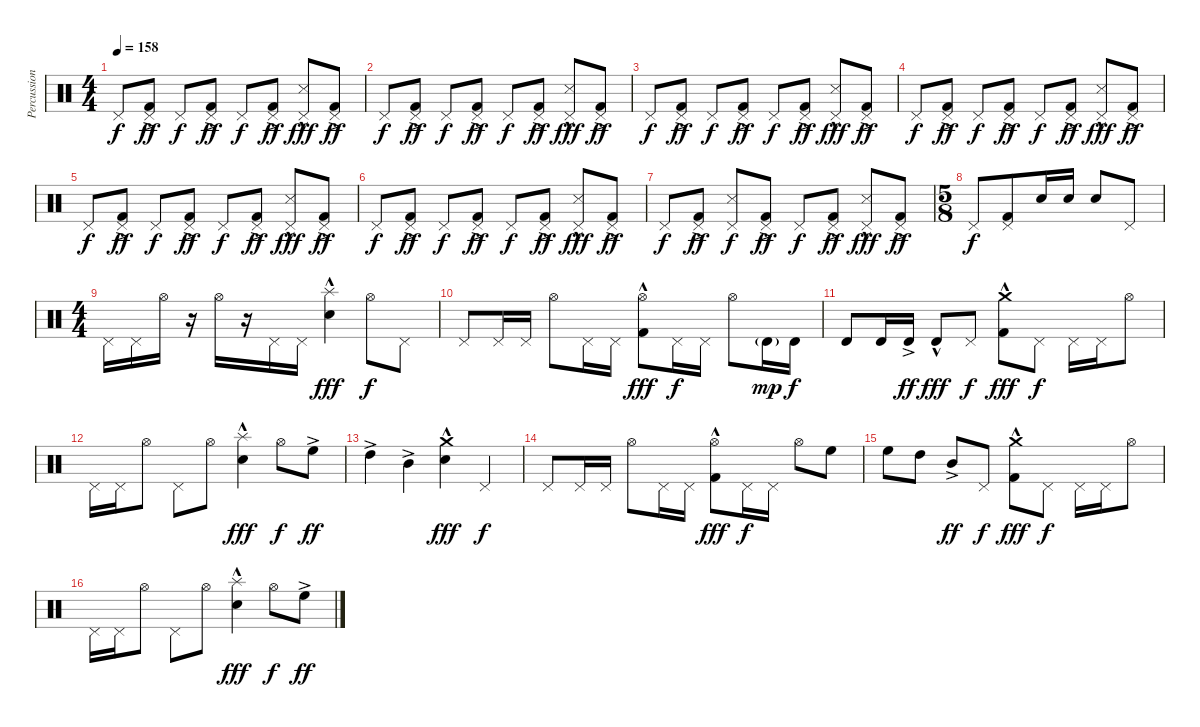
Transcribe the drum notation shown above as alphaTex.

\track ("Percussion" "Percussion") {instrument percussion}
\staff {score}
\articulation defaults
\ts (4 4)
\tempo 158
\clef neutral
\ks c "Pedal Hi-Hat (hit)".8{dy f}
("Pedal Hi-Hat (hit)"{ac} "Kick (hit) 2").8{dy ff} "Pedal Hi-Hat (hit)".8{dy f} ("Pedal Hi-Hat (hit)"{ac} "Kick (hit) 2").8{dy ff} "Pedal Hi-Hat (hit)".8{dy f} ("Pedal Hi-Hat (hit)"{ac} "Kick (hit) 2").8{dy ff} ("Pedal Hi-Hat (hit)" "Snare (side stick) 3"{hac}).8{dy fff} ("Pedal Hi-Hat (hit)"{ac} "Kick (hit) 2").8{dy ff} |
"Pedal Hi-Hat (hit)".8{dy f} ("Pedal Hi-Hat (hit)"{ac} "Kick (hit) 2").8{dy ff} "Pedal Hi-Hat (hit)".8{dy f} ("Pedal Hi-Hat (hit)"{ac} "Kick (hit) 2").8{dy ff} "Pedal Hi-Hat (hit)".8{dy f} ("Pedal Hi-Hat (hit)"{ac} "Kick (hit) 2").8{dy ff} ("Pedal Hi-Hat (hit)" "Snare (side stick) 3"{hac}).8{dy fff} ("Pedal Hi-Hat (hit)"{ac} "Kick (hit) 2").8{dy ff} |
"Pedal Hi-Hat (hit)".8{dy f} ("Pedal Hi-Hat (hit)"{ac} "Kick (hit) 2").8{dy ff} "Pedal Hi-Hat (hit)".8{dy f} ("Pedal Hi-Hat (hit)"{ac} "Kick (hit) 2").8{dy ff} "Pedal Hi-Hat (hit)".8{dy f} ("Pedal Hi-Hat (hit)"{ac} "Kick (hit) 2").8{dy ff} ("Pedal Hi-Hat (hit)" "Snare (side stick) 3"{hac}).8{dy fff} ("Pedal Hi-Hat (hit)"{ac} "Kick (hit) 2").8{dy ff} |
"Pedal Hi-Hat (hit)".8{dy f} ("Pedal Hi-Hat (hit)"{ac} "Kick (hit) 2").8{dy ff} "Pedal Hi-Hat (hit)".8{dy f} ("Pedal Hi-Hat (hit)"{ac} "Kick (hit) 2").8{dy ff} "Pedal Hi-Hat (hit)".8{dy f} ("Pedal Hi-Hat (hit)"{ac} "Kick (hit) 2").8{dy ff} ("Pedal Hi-Hat (hit)" "Snare (side stick) 3"{hac}).8{dy fff} ("Pedal Hi-Hat (hit)"{ac} "Kick (hit) 2").8{dy ff} |
"Pedal Hi-Hat (hit)".8{dy f} ("Pedal Hi-Hat (hit)"{ac} "Kick (hit) 2").8{dy ff} "Pedal Hi-Hat (hit)".8{dy f} ("Pedal Hi-Hat (hit)"{ac} "Kick (hit) 2").8{dy ff} "Pedal Hi-Hat (hit)".8{dy f} ("Pedal Hi-Hat (hit)"{ac} "Kick (hit) 2").8{dy ff} ("Pedal Hi-Hat (hit)" "Snare (side stick) 3"{hac}).8{dy fff} ("Pedal Hi-Hat (hit)"{ac} "Kick (hit) 2").8{dy ff} |
"Pedal Hi-Hat (hit)".8{dy f} ("Pedal Hi-Hat (hit)"{ac} "Kick (hit) 2").8{dy ff} "Pedal Hi-Hat (hit)".8{dy f} ("Pedal Hi-Hat (hit)"{ac} "Kick (hit) 2").8{dy ff} "Pedal Hi-Hat (hit)".8{dy f} ("Pedal Hi-Hat (hit)"{ac} "Kick (hit) 2").8{dy ff} ("Pedal Hi-Hat (hit)" "Snare (side stick) 3"{hac}).8{dy fff} ("Pedal Hi-Hat (hit)"{ac} "Kick (hit) 2").8{dy ff} |
"Pedal Hi-Hat (hit)".8{dy f} ("Pedal Hi-Hat (hit)"{ac} "Kick (hit) 2").8{dy ff} ("Pedal Hi-Hat (hit)" "Snare (side stick) 3").8{dy f} ("Pedal Hi-Hat (hit)"{ac} "Kick (hit) 2").8{dy ff} "Pedal Hi-Hat (hit)".8{dy f} ("Pedal Hi-Hat (hit)"{ac} "Kick (hit) 2").8{dy ff} ("Pedal Hi-Hat (hit)" "Snare (side stick) 3"{hac}).8{dy fff} ("Pedal Hi-Hat (hit)"{ac} "Kick (hit) 2").8{dy ff} |
\ts (5 8)
"Pedal Hi-Hat (hit)".8{dy f} ("Pedal Hi-Hat (hit)" "Kick (hit) 2").8 "Electric Snare (hit)".16 "Electric Snare (hit)".16 "Electric Snare (hit)".8 "Pedal Hi-Hat (hit)".8 |
\ts (4 4)
"Pedal Hi-Hat (hit)".16 "Pedal Hi-Hat (hit)".16 "Hi-Hat (open)".16 r.16 "Hi-Hat (open)".16 r.16 "Pedal Hi-Hat (hit)".16 "Pedal Hi-Hat (hit)".16 ("Splash (hit)" "Electric Snare (hit)"{hac}).4{dy fff} "Hi-Hat (open)".8{dy f} "Pedal Hi-Hat (hit)".8 |
"Pedal Hi-Hat (hit)".8 "Pedal Hi-Hat (hit)".16 "Pedal Hi-Hat (hit)".16 "Hi-Hat (open)".8 "Pedal Hi-Hat (hit)".16 "Pedal Hi-Hat (hit)".16 ("Hi-Hat (open)" "Kick (hit) 2"{hac}).8{dy fff} "Pedal Hi-Hat (hit)".16{dy f} "Pedal Hi-Hat (hit)".16 "Hi-Hat (open)".8 "Timbale high (hit)"{g}.16{dy mp} "Timbale high (hit)".16{dy f} |
"Timbale high (hit)".8 "Timbale high (hit)".16 "Timbale high (hit)"{ac}.16{dy ff} "Timbale high (hit)"{hac}.8{dy fff} "Pedal Hi-Hat (hit)".8{dy f} ("Crash medium (hit)" "Kick (hit) 2"{hac}).8{dy fff} "Pedal Hi-Hat (hit)".8{dy f} "Pedal Hi-Hat (hit)".16 "Pedal Hi-Hat (hit)".16 "Hi-Hat (open)".8 |
"Pedal Hi-Hat (hit)".16 "Pedal Hi-Hat (hit)".16 "Hi-Hat (open)".8 "Pedal Hi-Hat (hit)".8 "Hi-Hat (open)".8 ("Splash (hit)" "Electric Snare (hit)"{hac}).4{dy fff} "Hi-Hat (open)".8{dy f} "High Floor Tom (hit)"{ac}.8{dy ff} |
"High Tom (hit)"{ac}.4 "Mid Tom (hit)"{ac}.4 ("Crash medium (hit)" "Electric Snare (hit)"{hac}).4{dy fff} "Pedal Hi-Hat (hit)".4{dy f} |
"Pedal Hi-Hat (hit)".8 "Pedal Hi-Hat (hit)".16 "Pedal Hi-Hat (hit)".16 "Hi-Hat (open)".8 "Pedal Hi-Hat (hit)".16 "Pedal Hi-Hat (hit)".16 ("Hi-Hat (open)" "Kick (hit) 2"{hac}).8{dy fff} "Pedal Hi-Hat (hit)".16{dy f} "Pedal Hi-Hat (hit)".16 "Hi-Hat (open)".8 "High Floor Tom (hit)".8 |
"High Floor Tom (hit)".8 "High Tom (hit)".8 "Mid Tom (hit)"{ac}.8{dy ff} "Pedal Hi-Hat (hit)".8{dy f} ("Crash medium (hit)" "Kick (hit) 2"{hac}).8{dy fff} "Pedal Hi-Hat (hit)".8{dy f} "Pedal Hi-Hat (hit)".16 "Pedal Hi-Hat (hit)".16 "Hi-Hat (open)".8 |
"Pedal Hi-Hat (hit)".16 "Pedal Hi-Hat (hit)".16 "Hi-Hat (open)".8 "Pedal Hi-Hat (hit)".8 "Hi-Hat (open)".8 ("Splash (hit)" "Electric Snare (hit)"{hac}).4{dy fff} "Hi-Hat (open)".8{dy f} "High Floor Tom (hit)"{ac}.8{dy ff}
